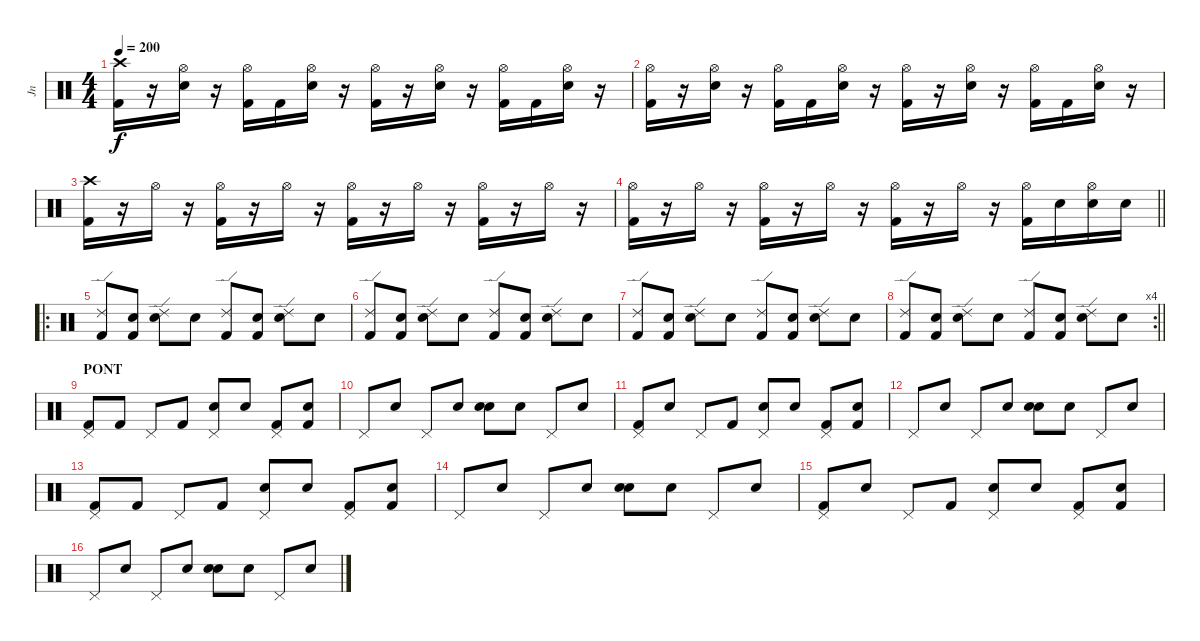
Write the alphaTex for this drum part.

\track ("Jn" "Jn") {instrument percussion}
\staff {score}
\articulation defaults
\ts (4 4)
\tempo 200
\clef neutral
\ks c
("Crash high (hit)" "Kick (hit) 2").16{dy f} r.16 ("Hi-Hat (open)" "Electric Snare (hit)").16 r.16 ("Hi-Hat (open)" "Kick (hit) 2").16 "Kick (hit) 2".16 ("Hi-Hat (open)" "Electric Snare (hit)").16 r.16 ("Hi-Hat (open)" "Kick (hit) 2").16 r.16 ("Hi-Hat (open)" "Electric Snare (hit)").16 r.16 ("Hi-Hat (open)" "Kick (hit) 2").16 "Kick (hit) 2".16 ("Hi-Hat (open)" "Electric Snare (hit)").16 r.16 |
("Hi-Hat (open)" "Kick (hit) 2").16 r.16 ("Hi-Hat (open)" "Electric Snare (hit)").16 r.16 ("Hi-Hat (open)" "Kick (hit) 2").16 "Kick (hit) 2".16 ("Hi-Hat (open)" "Electric Snare (hit)").16 r.16 ("Hi-Hat (open)" "Kick (hit) 2").16 r.16 ("Hi-Hat (open)" "Electric Snare (hit)").16 r.16 ("Hi-Hat (open)" "Kick (hit) 2").16 "Kick (hit) 2".16 ("Hi-Hat (open)" "Electric Snare (hit)").16 r.16 |
("Crash high (hit)" "Kick (hit) 2").16 r.16 "Hi-Hat (open)".16 r.16 ("Hi-Hat (open)" "Kick (hit) 2").16 r.16 "Hi-Hat (open)".16 r.16 ("Hi-Hat (open)" "Kick (hit) 2").16 r.16 "Hi-Hat (open)".16 r.16 ("Hi-Hat (open)" "Kick (hit) 2").16 r.16 "Hi-Hat (open)".16 r.16 |
\barLineRight lightlight
("Hi-Hat (open)" "Kick (hit) 2").16 r.16 "Hi-Hat (open)".16 r.16 ("Hi-Hat (open)" "Kick (hit) 2").16 r.16 "Hi-Hat (open)".16 r.16 ("Hi-Hat (open)" "Kick (hit) 2").16 r.16 "Hi-Hat (open)".16 r.16 ("Hi-Hat (open)" "Kick (hit) 2").16 "Electric Snare (hit)".16 ("Hi-Hat (open)" "Electric Snare (hit)").16 "Electric Snare (hit)".16 |
\ro
("Ride (edge) 2" "Kick (hit) 2").8 ("Snare (hit)" "Kick (hit) 2").8 ("Ride (edge) 2" "Electric Snare (hit)").8 "Snare (hit)".8 ("Ride (edge) 2" "Kick (hit) 2").8 ("Snare (hit)" "Kick (hit) 2").8 ("Ride (edge) 2" "Electric Snare (hit)").8 "Snare (hit)".8 |
("Ride (edge) 2" "Kick (hit) 2").8 ("Snare (hit)" "Kick (hit) 2").8 ("Ride (edge) 2" "Electric Snare (hit)").8 "Snare (hit)".8 ("Ride (edge) 2" "Kick (hit) 2").8 ("Snare (hit)" "Kick (hit) 2").8 ("Ride (edge) 2" "Electric Snare (hit)").8 "Snare (hit)".8 |
("Ride (edge) 2" "Kick (hit) 2").8 ("Snare (hit)" "Kick (hit) 2").8 ("Ride (edge) 2" "Electric Snare (hit)").8 "Snare (hit)".8 ("Ride (edge) 2" "Kick (hit) 2").8 ("Snare (hit)" "Kick (hit) 2").8 ("Ride (edge) 2" "Electric Snare (hit)").8 "Snare (hit)".8 |
\rc 4
\barLineRight lightlight
("Ride (edge) 2" "Kick (hit) 2").8 ("Snare (hit)" "Kick (hit) 2").8 ("Ride (edge) 2" "Electric Snare (hit)").8 "Snare (hit)".8 ("Ride (edge) 2" "Kick (hit) 2").8 ("Snare (hit)" "Kick (hit) 2").8 ("Ride (edge) 2" "Electric Snare (hit)").8 "Snare (hit)".8 |
\section ("" "PONT")
("Pedal Hi-Hat (hit)" "Kick (hit) 2").8 "Kick (hit) 2".8 "Pedal Hi-Hat (hit)".8 "Kick (hit) 2".8 ("Pedal Hi-Hat (hit)" "Electric Snare (hit)").8 "Snare (hit)".8 ("Pedal Hi-Hat (hit)" "Kick (hit) 2").8 ("Snare (hit)" "Kick (hit) 2").8 |
"Pedal Hi-Hat (hit)".8 "Snare (hit)".8 "Pedal Hi-Hat (hit)".8 "Snare (hit)".8 ("Snare (hit)" "Electric Snare (hit)").8 "Snare (hit)".8 "Pedal Hi-Hat (hit)".8 "Snare (hit)".8 |
("Pedal Hi-Hat (hit)" "Kick (hit) 2").8 "Electric Snare (hit)".8 "Pedal Hi-Hat (hit)".8 "Kick (hit) 2".8 ("Pedal Hi-Hat (hit)" "Electric Snare (hit)").8 "Snare (hit)".8 ("Pedal Hi-Hat (hit)" "Kick (hit) 2").8 ("Snare (hit)" "Kick (hit) 2").8 |
"Pedal Hi-Hat (hit)".8 "Snare (hit)".8 "Pedal Hi-Hat (hit)".8 "Snare (hit)".8 ("Snare (hit)" "Electric Snare (hit)").8 "Snare (hit)".8 "Pedal Hi-Hat (hit)".8 "Snare (hit)".8 |
("Pedal Hi-Hat (hit)" "Kick (hit) 2").8 "Kick (hit) 2".8 "Pedal Hi-Hat (hit)".8 "Kick (hit) 2".8 ("Pedal Hi-Hat (hit)" "Electric Snare (hit)").8 "Snare (hit)".8 ("Pedal Hi-Hat (hit)" "Kick (hit) 2").8 ("Snare (hit)" "Kick (hit) 2").8 |
"Pedal Hi-Hat (hit)".8 "Snare (hit)".8 "Pedal Hi-Hat (hit)".8 "Snare (hit)".8 ("Snare (hit)" "Electric Snare (hit)").8 "Snare (hit)".8 "Pedal Hi-Hat (hit)".8 "Snare (hit)".8 |
("Pedal Hi-Hat (hit)" "Kick (hit) 2").8 "Electric Snare (hit)".8 "Pedal Hi-Hat (hit)".8 "Kick (hit) 2".8 ("Pedal Hi-Hat (hit)" "Electric Snare (hit)").8 "Snare (hit)".8 ("Pedal Hi-Hat (hit)" "Kick (hit) 2").8 ("Snare (hit)" "Kick (hit) 2").8 |
"Pedal Hi-Hat (hit)".8 "Snare (hit)".8 "Pedal Hi-Hat (hit)".8 "Snare (hit)".8 ("Snare (hit)" "Electric Snare (hit)").8 "Snare (hit)".8 "Pedal Hi-Hat (hit)".8 "Snare (hit)".8
